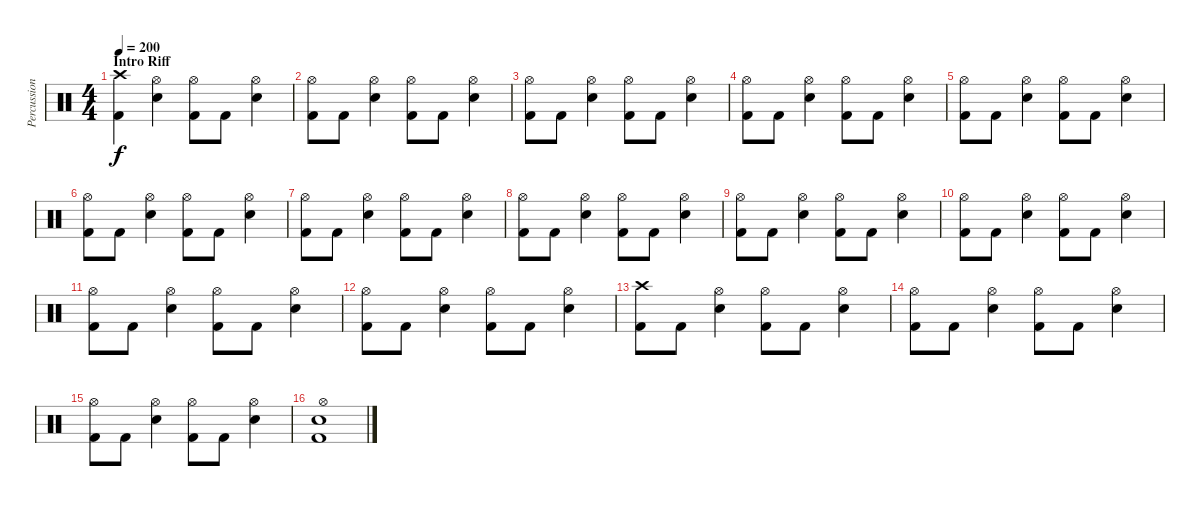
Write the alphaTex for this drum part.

\track ("Percussion" "Percussion") {instrument percussion}
\staff {score}
\articulation defaults
\ts (4 4)
\section ("" "Intro Riff")
\tempo 200
\clef neutral
\ks c
("Crash high (hit)" "Kick (hit) 2").4{dy f} ("Hi-Hat (open)" "Snare (hit) 2").4 ("Hi-Hat (open)" "Kick (hit) 2").8 "Kick (hit) 2".8 ("Hi-Hat (open)" "Snare (hit) 2").4 |
("Hi-Hat (open)" "Kick (hit) 2").8 "Kick (hit) 2".8 ("Hi-Hat (open)" "Snare (hit) 2").4 ("Hi-Hat (open)" "Kick (hit) 2").8 "Kick (hit) 2".8 ("Hi-Hat (open)" "Snare (hit) 2").4 |
("Hi-Hat (open)" "Kick (hit) 2").8 "Kick (hit) 2".8 ("Hi-Hat (open)" "Snare (hit) 2").4 ("Hi-Hat (open)" "Kick (hit) 2").8 "Kick (hit) 2".8 ("Hi-Hat (open)" "Snare (hit) 2").4 |
("Hi-Hat (open)" "Kick (hit) 2").8 "Kick (hit) 2".8 ("Hi-Hat (open)" "Snare (hit) 2").4 ("Hi-Hat (open)" "Kick (hit) 2").8 "Kick (hit) 2".8 ("Hi-Hat (open)" "Snare (hit) 2").4 |
("Hi-Hat (open)" "Kick (hit) 2").8 "Kick (hit) 2".8 ("Hi-Hat (open)" "Snare (hit) 2").4 ("Hi-Hat (open)" "Kick (hit) 2").8 "Kick (hit) 2".8 ("Hi-Hat (open)" "Snare (hit) 2").4 |
("Hi-Hat (open)" "Kick (hit) 2").8 "Kick (hit) 2".8 ("Hi-Hat (open)" "Snare (hit) 2").4 ("Hi-Hat (open)" "Kick (hit) 2").8 "Kick (hit) 2".8 ("Hi-Hat (open)" "Snare (hit) 2").4 |
("Hi-Hat (open)" "Kick (hit) 2").8 "Kick (hit) 2".8 ("Hi-Hat (open)" "Snare (hit) 2").4 ("Hi-Hat (open)" "Kick (hit) 2").8 "Kick (hit) 2".8 ("Hi-Hat (open)" "Snare (hit) 2").4 |
("Hi-Hat (open)" "Kick (hit) 2").8 "Kick (hit) 2".8 ("Hi-Hat (open)" "Snare (hit) 2").4 ("Hi-Hat (open)" "Kick (hit) 2").8 "Kick (hit) 2".8 ("Hi-Hat (open)" "Snare (hit) 2").4 |
("Hi-Hat (open)" "Kick (hit) 2").8 "Kick (hit) 2".8 ("Hi-Hat (open)" "Snare (hit) 2").4 ("Hi-Hat (open)" "Kick (hit) 2").8 "Kick (hit) 2".8 ("Hi-Hat (open)" "Snare (hit) 2").4 |
("Hi-Hat (open)" "Kick (hit) 2").8 "Kick (hit) 2".8 ("Hi-Hat (open)" "Snare (hit) 2").4 ("Hi-Hat (open)" "Kick (hit) 2").8 "Kick (hit) 2".8 ("Hi-Hat (open)" "Snare (hit) 2").4 |
("Hi-Hat (open)" "Kick (hit) 2").8 "Kick (hit) 2".8 ("Hi-Hat (open)" "Snare (hit) 2").4 ("Hi-Hat (open)" "Kick (hit) 2").8 "Kick (hit) 2".8 ("Hi-Hat (open)" "Snare (hit) 2").4 |
("Hi-Hat (open)" "Kick (hit) 2").8 "Kick (hit) 2".8 ("Hi-Hat (open)" "Snare (hit) 2").4 ("Hi-Hat (open)" "Kick (hit) 2").8 "Kick (hit) 2".8 ("Hi-Hat (open)" "Snare (hit) 2").4 |
("Crash high (hit)" "Kick (hit) 2").8 "Kick (hit) 2".8 ("Hi-Hat (open)" "Snare (hit) 2").4 ("Hi-Hat (open)" "Kick (hit) 2").8 "Kick (hit) 2".8 ("Hi-Hat (open)" "Snare (hit) 2").4 |
("Hi-Hat (open)" "Kick (hit) 2").8 "Kick (hit) 2".8 ("Hi-Hat (open)" "Snare (hit) 2").4 ("Hi-Hat (open)" "Kick (hit) 2").8 "Kick (hit) 2".8 ("Hi-Hat (open)" "Snare (hit) 2").4 |
("Hi-Hat (open)" "Kick (hit) 2").8 "Kick (hit) 2".8 ("Hi-Hat (open)" "Snare (hit) 2").4 ("Hi-Hat (open)" "Kick (hit) 2").8 "Kick (hit) 2".8 ("Hi-Hat (open)" "Snare (hit) 2").4 |
("Hi-Hat (open)" "Snare (hit) 2" "Kick (hit) 2").1
